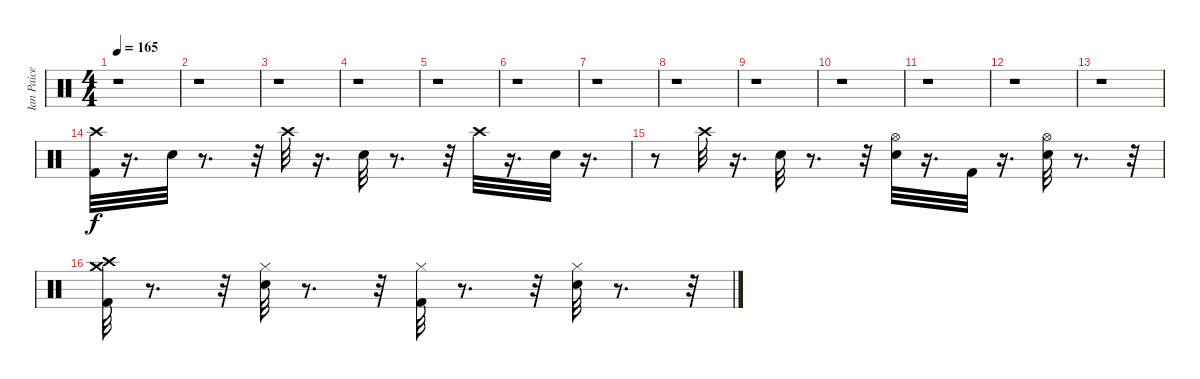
\track ("Ian Paice" "Ian Paice") {instrument percussion}
\staff {score}
\articulation defaults
\ts (4 4)
\tempo 165
\clef neutral
\ks c
r.1{dy f} |
r.1 |
r.1 |
r.1 |
r.1 |
r.1 |
r.1 |
r.1 |
r.1 |
r.1 |
r.1 |
r.1 |
r.1 |
("Crash high (hit)" "Kick (hit) 2").32{volume 16} r.16{d} "Snare (hit) 2".32 r.8{d} r.32 "Crash high (hit)".32 r.16{d} "Snare (hit) 2".32 r.8{d} r.32 "Crash high (hit)".32 r.16{d} "Snare (hit) 2".32 r.16{d} |
r.8 "Crash high (hit)".32 r.16{d} "Snare (hit) 2".32 r.8{d} r.32 ("Hi-Hat (open)" "Snare (hit) 2").32 r.16{d} "Kick (hit) 2".32 r.16{d} ("Hi-Hat (open)" "Snare (hit) 2").32 r.8{d} r.32 |
("Crash medium (hit)" "Kick (hit) 2" "Crash high (hit)").32 r.8{d} r.32 ("Hi-Hat (closed)" "Snare (hit) 2").32 r.8{d} r.32 ("Hi-Hat (closed)" "Kick (hit) 2").32 r.8{d} r.32 ("Hi-Hat (closed)" "Snare (hit) 2").32 r.8{d} r.32
